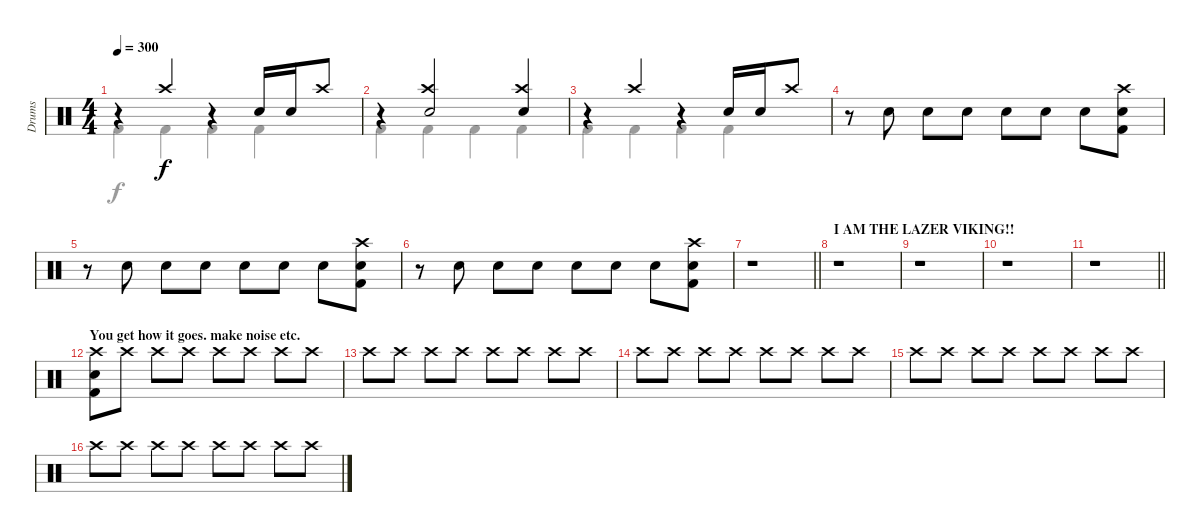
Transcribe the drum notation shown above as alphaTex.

\track ("Drums" "Drums") {instrument percussion}
\staff {score}
\articulation defaults
\voice
\ts (4 4)
\tempo 300
\clef neutral
\ks c
r.4{dy f} "Crash high (hit)".4 r.4 "Snare (hit) 2".16 "Snare (hit) 2".16 "Crash high (hit)".8 |
r.4 ("Crash high (hit)" "Snare (hit) 2").2 ("Crash high (hit)" "Snare (hit) 2").4 |
r.4 "Crash high (hit)".4 r.4 "Snare (hit) 2".16 "Snare (hit) 2".16 "Crash high (hit)".8 |
r.8 "Snare (hit) 2".8 "Snare (hit) 2".8 "Snare (hit) 2".8 "Snare (hit) 2".8 "Snare (hit) 2".8 "Snare (hit) 2".8 ("Crash high (hit)" "Snare (hit) 2" "Kick (hit) 2").8 |
r.8 "Snare (hit) 2".8 "Snare (hit) 2".8 "Snare (hit) 2".8 "Snare (hit) 2".8 "Snare (hit) 2".8 "Snare (hit) 2".8 ("Crash high (hit)" "Snare (hit) 2" "Kick (hit) 2").8 |
r.8 "Snare (hit) 2".8 "Snare (hit) 2".8 "Snare (hit) 2".8 "Snare (hit) 2".8 "Snare (hit) 2".8 "Snare (hit) 2".8 ("Crash high (hit)" "Snare (hit) 2" "Kick (hit) 2").8 |
\barLineRight lightlight
r.1 |
\section ("" "I AM THE LAZER VIKING!!")
r.1 |
r.1 |
r.1 |
\barLineRight lightlight
r.1 |
\section ("" "You get how it goes. make noise etc.")
("Crash high (hit)" "Snare (hit) 2" "Kick (hit) 2").8 "Crash high (hit)".8 "Crash high (hit)".8 "Crash high (hit)".8 "Crash high (hit)".8 "Crash high (hit)".8 "Crash high (hit)".8 "Crash high (hit)".8 |
"Crash high (hit)".8 "Crash high (hit)".8 "Crash high (hit)".8 "Crash high (hit)".8 "Crash high (hit)".8 "Crash high (hit)".8 "Crash high (hit)".8 "Crash high (hit)".8 |
"Crash high (hit)".8 "Crash high (hit)".8 "Crash high (hit)".8 "Crash high (hit)".8 "Crash high (hit)".8 "Crash high (hit)".8 "Crash high (hit)".8 "Crash high (hit)".8 |
"Crash high (hit)".8 "Crash high (hit)".8 "Crash high (hit)".8 "Crash high (hit)".8 "Crash high (hit)".8 "Crash high (hit)".8 "Crash high (hit)".8 "Crash high (hit)".8 |
"Crash high (hit)".8 "Crash high (hit)".8 "Crash high (hit)".8 "Crash high (hit)".8 "Crash high (hit)".8 "Crash high (hit)".8 "Crash high (hit)".8 "Crash high (hit)".8
\voice
\clef neutral
\ottava regular
\simile none
\ks c "Kick (hit) 2".4{dy f} "Kick (hit) 2".4 "Kick (hit) 2".4 "Kick (hit) 2".4
|
"Kick (hit) 2".4 "Kick (hit) 2".4 "Kick (hit) 2".4 "Kick (hit) 2".4 |
"Kick (hit) 2".4 "Kick (hit) 2".4 "Kick (hit) 2".4 "Kick (hit) 2".4 |
|
|
|
\barLineRight lightlight
|
|
|
|
\barLineRight lightlight
|
|
|
|
|
